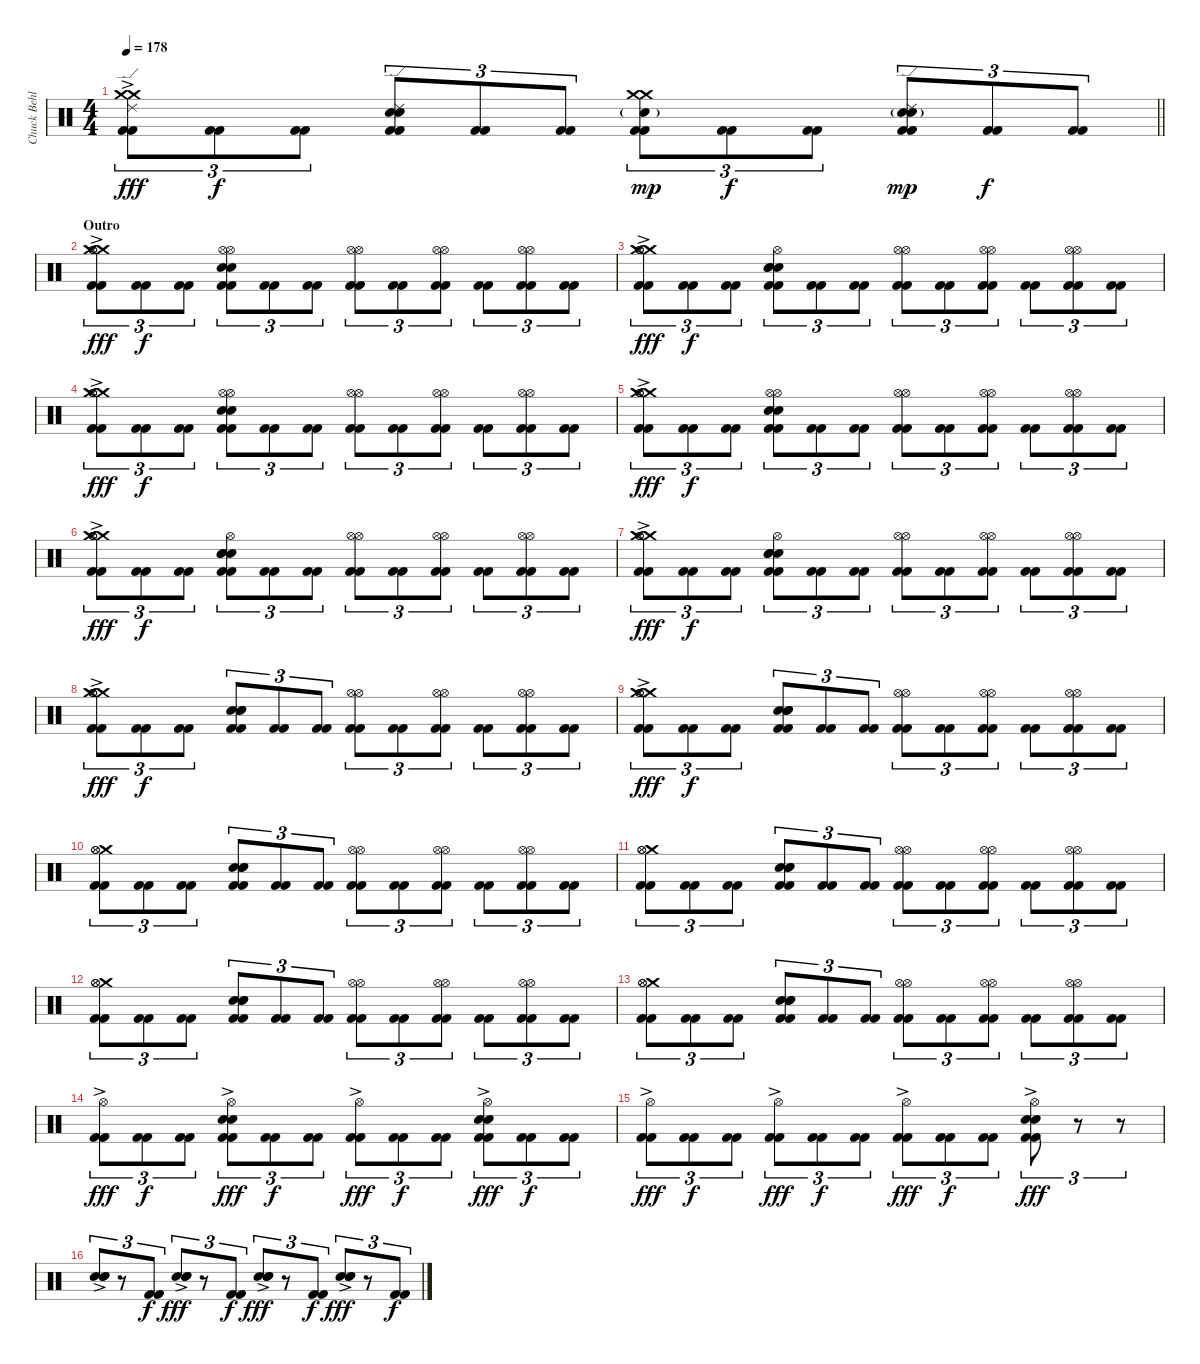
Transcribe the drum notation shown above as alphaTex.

\track ("Chuck Behler" "Chuck Behl") {instrument percussion}
\staff {score}
\articulation defaults
\ts (4 4)
\tempo 178
\clef neutral
\barLineRight lightlight
\ks c
("Crash medium (hit)"{ac} "Crash medium (hit)"{ac} "Ride (edge) 2" "Kick (hit) 2" "Kick (hit) 2").8{tu (3 2) dy fff} ("Kick (hit) 2" "Kick (hit) 2").8{tu (3 2) dy f} ("Kick (hit) 2" "Kick (hit) 2").8{tu (3 2)} ("Ride (edge) 2" "Electric Snare (hit)" "Snare (hit) 2" "Kick (hit) 2" "Kick (hit) 2").8{tu (3 2)} ("Kick (hit) 2" "Kick (hit) 2").8{tu (3 2)} ("Kick (hit) 2" "Kick (hit) 2").8{tu (3 2)} ("Crash medium (hit)" "Crash medium (hit)" "Snare (hit) 2"{g} "Kick (hit) 2" "Kick (hit) 2").8{tu (3 2) dy mp} ("Kick (hit) 2" "Kick (hit) 2").8{tu (3 2) dy f} ("Kick (hit) 2" "Kick (hit) 2").8{tu (3 2)} ("Electric Snare (hit)" "Ride (edge) 2" "Snare (hit) 2"{g} "Kick (hit) 2" "Kick (hit) 2").8{tu (3 2) dy mp} ("Kick (hit) 2" "Kick (hit) 2").8{tu (3 2) dy f} ("Kick (hit) 2" "Kick (hit) 2").8{tu (3 2)} |
\section ("" "Outro")
("Crash medium (hit)"{ac} "Crash medium (hit)"{ac} "Hi-Hat (open)" "Hi-Hat (open)" "Kick (hit) 2" "Kick (hit) 2").8{tu (3 2) dy fff} ("Kick (hit) 2" "Kick (hit) 2").8{tu (3 2) dy f} ("Kick (hit) 2" "Kick (hit) 2").8{tu (3 2)} ("Electric Snare (hit)" "Hi-Hat (open)" "Hi-Hat (open)" "Electric Snare (hit)" "Kick (hit) 2" "Kick (hit) 2").8{tu (3 2)} ("Kick (hit) 2" "Kick (hit) 2").8{tu (3 2)} ("Kick (hit) 2" "Kick (hit) 2").8{tu (3 2)} ("Hi-Hat (open)"{pm} "Hi-Hat (open)"{pm} "Kick (hit) 2" "Kick (hit) 2").8{tu (3 2)} ("Kick (hit) 2" "Kick (hit) 2").8{tu (3 2)} ("Hi-Hat (open)"{pm} "Hi-Hat (open)"{pm} "Kick (hit) 2" "Kick (hit) 2").8{tu (3 2)} ("Kick (hit) 2" "Kick (hit) 2").8{tu (3 2)} ("Hi-Hat (open)"{pm} "Hi-Hat (open)"{pm} "Kick (hit) 2" "Kick (hit) 2").8{tu (3 2)} ("Kick (hit) 2" "Kick (hit) 2").8{tu (3 2)} |
("Crash medium (hit)"{ac} "Crash medium (hit)"{ac} "Hi-Hat (open)" "Hi-Hat (open)" "Kick (hit) 2" "Kick (hit) 2").8{tu (3 2) dy fff} ("Kick (hit) 2" "Kick (hit) 2").8{tu (3 2) dy f} ("Kick (hit) 2" "Kick (hit) 2").8{tu (3 2)} ("Electric Snare (hit)" "Hi-Hat (open)" "Electric Snare (hit)" "Snare (hit) 2" "Kick (hit) 2" "Kick (hit) 2").8{tu (3 2)} ("Kick (hit) 2" "Kick (hit) 2").8{tu (3 2)} ("Kick (hit) 2" "Kick (hit) 2").8{tu (3 2)} ("Hi-Hat (open)"{pm} "Hi-Hat (open)"{pm} "Kick (hit) 2" "Kick (hit) 2").8{tu (3 2)} ("Kick (hit) 2" "Kick (hit) 2").8{tu (3 2)} ("Hi-Hat (open)"{pm} "Hi-Hat (open)"{pm} "Kick (hit) 2" "Kick (hit) 2").8{tu (3 2)} ("Kick (hit) 2" "Kick (hit) 2").8{tu (3 2)} ("Hi-Hat (open)"{pm} "Hi-Hat (open)"{pm} "Kick (hit) 2" "Kick (hit) 2").8{tu (3 2)} ("Kick (hit) 2" "Kick (hit) 2").8{tu (3 2)} |
("Crash medium (hit)"{ac} "Crash medium (hit)"{ac} "Hi-Hat (open)" "Hi-Hat (open)" "Kick (hit) 2" "Kick (hit) 2").8{tu (3 2) dy fff} ("Kick (hit) 2" "Kick (hit) 2").8{tu (3 2) dy f} ("Kick (hit) 2" "Kick (hit) 2").8{tu (3 2)} ("Electric Snare (hit)" "Hi-Hat (open)" "Hi-Hat (open)" "Electric Snare (hit)" "Kick (hit) 2" "Kick (hit) 2").8{tu (3 2)} ("Kick (hit) 2" "Kick (hit) 2").8{tu (3 2)} ("Kick (hit) 2" "Kick (hit) 2").8{tu (3 2)} ("Hi-Hat (open)"{pm} "Hi-Hat (open)"{pm} "Kick (hit) 2" "Kick (hit) 2").8{tu (3 2)} ("Kick (hit) 2" "Kick (hit) 2").8{tu (3 2)} ("Hi-Hat (open)"{pm} "Hi-Hat (open)"{pm} "Kick (hit) 2" "Kick (hit) 2").8{tu (3 2)} ("Kick (hit) 2" "Kick (hit) 2").8{tu (3 2)} ("Hi-Hat (open)"{pm} "Hi-Hat (open)"{pm} "Kick (hit) 2" "Kick (hit) 2").8{tu (3 2)} ("Kick (hit) 2" "Kick (hit) 2").8{tu (3 2)} |
("Crash medium (hit)"{ac} "Crash medium (hit)"{ac} "Hi-Hat (open)" "Hi-Hat (open)" "Kick (hit) 2" "Kick (hit) 2").8{tu (3 2) dy fff} ("Kick (hit) 2" "Kick (hit) 2").8{tu (3 2) dy f} ("Kick (hit) 2" "Kick (hit) 2").8{tu (3 2)} ("Electric Snare (hit)" "Hi-Hat (open)" "Hi-Hat (open)" "Electric Snare (hit)" "Kick (hit) 2" "Kick (hit) 2").8{tu (3 2)} ("Kick (hit) 2" "Kick (hit) 2").8{tu (3 2)} ("Kick (hit) 2" "Kick (hit) 2").8{tu (3 2)} ("Hi-Hat (open)"{pm} "Hi-Hat (open)"{pm} "Kick (hit) 2" "Kick (hit) 2").8{tu (3 2)} ("Kick (hit) 2" "Kick (hit) 2").8{tu (3 2)} ("Hi-Hat (open)"{pm} "Hi-Hat (open)"{pm} "Kick (hit) 2" "Kick (hit) 2").8{tu (3 2)} ("Kick (hit) 2" "Kick (hit) 2").8{tu (3 2)} ("Hi-Hat (open)"{pm} "Hi-Hat (open)"{pm} "Kick (hit) 2" "Kick (hit) 2").8{tu (3 2)} ("Kick (hit) 2" "Kick (hit) 2").8{tu (3 2)} |
("Crash medium (hit)"{ac} "Crash medium (hit)"{ac} "Hi-Hat (open)" "Hi-Hat (open)" "Kick (hit) 2" "Kick (hit) 2").8{tu (3 2) dy fff} ("Kick (hit) 2" "Kick (hit) 2").8{tu (3 2) dy f} ("Kick (hit) 2" "Kick (hit) 2").8{tu (3 2)} ("Electric Snare (hit)" "Hi-Hat (open)" "Electric Snare (hit)" "Snare (hit) 2" "Kick (hit) 2" "Kick (hit) 2").8{tu (3 2)} ("Kick (hit) 2" "Kick (hit) 2").8{tu (3 2)} ("Kick (hit) 2" "Kick (hit) 2").8{tu (3 2)} ("Hi-Hat (open)"{pm} "Hi-Hat (open)"{pm} "Kick (hit) 2" "Kick (hit) 2").8{tu (3 2)} ("Kick (hit) 2" "Kick (hit) 2").8{tu (3 2)} ("Hi-Hat (open)"{pm} "Hi-Hat (open)"{pm} "Kick (hit) 2" "Kick (hit) 2").8{tu (3 2)} ("Kick (hit) 2" "Kick (hit) 2").8{tu (3 2)} ("Hi-Hat (open)"{pm} "Hi-Hat (open)"{pm} "Kick (hit) 2" "Kick (hit) 2").8{tu (3 2)} ("Kick (hit) 2" "Kick (hit) 2").8{tu (3 2)} |
("Crash medium (hit)"{ac} "Crash medium (hit)"{ac} "Hi-Hat (open)" "Hi-Hat (open)" "Kick (hit) 2" "Kick (hit) 2").8{tu (3 2) dy fff} ("Kick (hit) 2" "Kick (hit) 2").8{tu (3 2) dy f} ("Kick (hit) 2" "Kick (hit) 2").8{tu (3 2)} ("Electric Snare (hit)" "Hi-Hat (open)" "Electric Snare (hit)" "Snare (hit) 2" "Kick (hit) 2" "Kick (hit) 2").8{tu (3 2)} ("Kick (hit) 2" "Kick (hit) 2").8{tu (3 2)} ("Kick (hit) 2" "Kick (hit) 2").8{tu (3 2)} ("Hi-Hat (open)"{pm} "Hi-Hat (open)"{pm} "Kick (hit) 2" "Kick (hit) 2").8{tu (3 2)} ("Kick (hit) 2" "Kick (hit) 2").8{tu (3 2)} ("Hi-Hat (open)"{pm} "Hi-Hat (open)"{pm} "Kick (hit) 2" "Kick (hit) 2").8{tu (3 2)} ("Kick (hit) 2" "Kick (hit) 2").8{tu (3 2)} ("Hi-Hat (open)"{pm} "Hi-Hat (open)"{pm} "Kick (hit) 2" "Kick (hit) 2").8{tu (3 2)} ("Kick (hit) 2" "Kick (hit) 2").8{tu (3 2)} |
("Crash medium (hit)"{ac} "Crash medium (hit)"{ac} "Hi-Hat (open)" "Hi-Hat (open)" "Kick (hit) 2" "Kick (hit) 2").8{tu (3 2) dy fff} ("Kick (hit) 2" "Kick (hit) 2").8{tu (3 2) dy f} ("Kick (hit) 2" "Kick (hit) 2").8{tu (3 2)} ("Electric Snare (hit)" "Electric Snare (hit)" "Snare (hit) 2" "Kick (hit) 2" "Kick (hit) 2").8{tu (3 2)} ("Kick (hit) 2" "Kick (hit) 2").8{tu (3 2)} ("Kick (hit) 2" "Kick (hit) 2").8{tu (3 2)} ("Hi-Hat (open)"{pm} "Hi-Hat (open)"{pm} "Kick (hit) 2" "Kick (hit) 2").8{tu (3 2)} ("Kick (hit) 2" "Kick (hit) 2").8{tu (3 2)} ("Hi-Hat (open)"{pm} "Hi-Hat (open)"{pm} "Kick (hit) 2" "Kick (hit) 2").8{tu (3 2)} ("Kick (hit) 2" "Kick (hit) 2").8{tu (3 2)} ("Hi-Hat (open)"{pm} "Hi-Hat (open)"{pm} "Kick (hit) 2" "Kick (hit) 2").8{tu (3 2)} ("Kick (hit) 2" "Kick (hit) 2").8{tu (3 2)} |
("Crash medium (hit)"{ac} "Crash medium (hit)"{ac} "Hi-Hat (open)" "Hi-Hat (open)" "Kick (hit) 2" "Kick (hit) 2").8{tu (3 2) dy fff} ("Kick (hit) 2" "Kick (hit) 2").8{tu (3 2) dy f} ("Kick (hit) 2" "Kick (hit) 2").8{tu (3 2)} ("Electric Snare (hit)" "Electric Snare (hit)" "Snare (hit) 2" "Kick (hit) 2" "Kick (hit) 2").8{tu (3 2)} ("Kick (hit) 2" "Kick (hit) 2").8{tu (3 2)} ("Kick (hit) 2" "Kick (hit) 2").8{tu (3 2)} ("Hi-Hat (open)"{pm} "Hi-Hat (open)"{pm} "Kick (hit) 2" "Kick (hit) 2").8{tu (3 2)} ("Kick (hit) 2" "Kick (hit) 2").8{tu (3 2)} ("Hi-Hat (open)"{pm} "Hi-Hat (open)"{pm} "Kick (hit) 2" "Kick (hit) 2").8{tu (3 2)} ("Kick (hit) 2" "Kick (hit) 2").8{tu (3 2)} ("Hi-Hat (open)"{pm} "Hi-Hat (open)"{pm} "Kick (hit) 2" "Kick (hit) 2").8{tu (3 2)} ("Kick (hit) 2" "Kick (hit) 2").8{tu (3 2)} |
("Crash medium (hit)" "Hi-Hat (open)" "Hi-Hat (open)" "Kick (hit) 2" "Kick (hit) 2").8{tu (3 2)} ("Kick (hit) 2" "Kick (hit) 2").8{tu (3 2)} ("Kick (hit) 2" "Kick (hit) 2").8{tu (3 2)} ("Electric Snare (hit)" "Electric Snare (hit)" "Snare (hit) 2" "Kick (hit) 2" "Kick (hit) 2").8{tu (3 2)} ("Kick (hit) 2" "Kick (hit) 2").8{tu (3 2)} ("Kick (hit) 2" "Kick (hit) 2").8{tu (3 2)} ("Hi-Hat (open)"{pm} "Hi-Hat (open)"{pm} "Kick (hit) 2" "Kick (hit) 2").8{tu (3 2)} ("Kick (hit) 2" "Kick (hit) 2").8{tu (3 2)} ("Hi-Hat (open)"{pm} "Hi-Hat (open)"{pm} "Kick (hit) 2" "Kick (hit) 2").8{tu (3 2)} ("Kick (hit) 2" "Kick (hit) 2").8{tu (3 2)} ("Hi-Hat (open)"{pm} "Hi-Hat (open)"{pm} "Kick (hit) 2" "Kick (hit) 2").8{tu (3 2)} ("Kick (hit) 2" "Kick (hit) 2").8{tu (3 2)} |
("Crash medium (hit)" "Hi-Hat (open)" "Hi-Hat (open)" "Kick (hit) 2" "Kick (hit) 2").8{tu (3 2)} ("Kick (hit) 2" "Kick (hit) 2").8{tu (3 2)} ("Kick (hit) 2" "Kick (hit) 2").8{tu (3 2)} ("Electric Snare (hit)" "Electric Snare (hit)" "Snare (hit) 2" "Kick (hit) 2" "Kick (hit) 2").8{tu (3 2)} ("Kick (hit) 2" "Kick (hit) 2").8{tu (3 2)} ("Kick (hit) 2" "Kick (hit) 2").8{tu (3 2)} ("Hi-Hat (open)"{pm} "Hi-Hat (open)"{pm} "Kick (hit) 2" "Kick (hit) 2").8{tu (3 2)} ("Kick (hit) 2" "Kick (hit) 2").8{tu (3 2)} ("Hi-Hat (open)"{pm} "Hi-Hat (open)"{pm} "Kick (hit) 2" "Kick (hit) 2").8{tu (3 2)} ("Kick (hit) 2" "Kick (hit) 2").8{tu (3 2)} ("Hi-Hat (open)"{pm} "Hi-Hat (open)"{pm} "Kick (hit) 2" "Kick (hit) 2").8{tu (3 2)} ("Kick (hit) 2" "Kick (hit) 2").8{tu (3 2)} |
("Crash medium (hit)" "Hi-Hat (open)" "Hi-Hat (open)" "Kick (hit) 2" "Kick (hit) 2").8{tu (3 2)} ("Kick (hit) 2" "Kick (hit) 2").8{tu (3 2)} ("Kick (hit) 2" "Kick (hit) 2").8{tu (3 2)} ("Electric Snare (hit)" "Electric Snare (hit)" "Snare (hit) 2" "Kick (hit) 2" "Kick (hit) 2").8{tu (3 2)} ("Kick (hit) 2" "Kick (hit) 2").8{tu (3 2)} ("Kick (hit) 2" "Kick (hit) 2").8{tu (3 2)} ("Hi-Hat (open)"{pm} "Hi-Hat (open)"{pm} "Kick (hit) 2" "Kick (hit) 2").8{tu (3 2)} ("Kick (hit) 2" "Kick (hit) 2").8{tu (3 2)} ("Hi-Hat (open)"{pm} "Hi-Hat (open)"{pm} "Kick (hit) 2" "Kick (hit) 2").8{tu (3 2)} ("Kick (hit) 2" "Kick (hit) 2").8{tu (3 2)} ("Hi-Hat (open)"{pm} "Hi-Hat (open)"{pm} "Kick (hit) 2" "Kick (hit) 2").8{tu (3 2)} ("Kick (hit) 2" "Kick (hit) 2").8{tu (3 2)} |
("Crash medium (hit)" "Hi-Hat (open)" "Hi-Hat (open)" "Kick (hit) 2" "Kick (hit) 2").8{tu (3 2)} ("Kick (hit) 2" "Kick (hit) 2").8{tu (3 2)} ("Kick (hit) 2" "Kick (hit) 2").8{tu (3 2)} ("Electric Snare (hit)" "Electric Snare (hit)" "Snare (hit) 2" "Kick (hit) 2" "Kick (hit) 2").8{tu (3 2)} ("Kick (hit) 2" "Kick (hit) 2").8{tu (3 2)} ("Kick (hit) 2" "Kick (hit) 2").8{tu (3 2)} ("Hi-Hat (open)"{pm} "Hi-Hat (open)"{pm} "Kick (hit) 2" "Kick (hit) 2").8{tu (3 2)} ("Kick (hit) 2" "Kick (hit) 2").8{tu (3 2)} ("Hi-Hat (open)"{pm} "Hi-Hat (open)"{pm} "Kick (hit) 2" "Kick (hit) 2").8{tu (3 2)} ("Kick (hit) 2" "Kick (hit) 2").8{tu (3 2)} ("Hi-Hat (open)"{pm} "Hi-Hat (open)"{pm} "Kick (hit) 2" "Kick (hit) 2").8{tu (3 2)} ("Kick (hit) 2" "Kick (hit) 2").8{tu (3 2)} |
("Hi-Hat (open)"{ac} "Kick (hit) 2" "Kick (hit) 2").8{tu (3 2) dy fff} ("Kick (hit) 2" "Kick (hit) 2").8{tu (3 2) dy f} ("Kick (hit) 2" "Kick (hit) 2").8{tu (3 2)} ("Snare (hit) 2" "Electric Snare (hit)" "Hi-Hat (open)"{ac} "Kick (hit) 2" "Kick (hit) 2").8{tu (3 2) dy fff} ("Kick (hit) 2" "Kick (hit) 2").8{tu (3 2) dy f} ("Kick (hit) 2" "Kick (hit) 2").8{tu (3 2)} ("Hi-Hat (open)"{ac} "Kick (hit) 2" "Kick (hit) 2").8{tu (3 2) dy fff} ("Kick (hit) 2" "Kick (hit) 2").8{tu (3 2) dy f} ("Kick (hit) 2" "Kick (hit) 2").8{tu (3 2)} ("Snare (hit) 2" "Electric Snare (hit)" "Hi-Hat (open)"{ac} "Kick (hit) 2" "Kick (hit) 2").8{tu (3 2) dy fff} ("Kick (hit) 2" "Kick (hit) 2").8{tu (3 2) dy f} ("Kick (hit) 2" "Kick (hit) 2").8{tu (3 2)} |
("Hi-Hat (open)"{ac} "Kick (hit) 2" "Kick (hit) 2").8{tu (3 2) dy fff} ("Kick (hit) 2" "Kick (hit) 2").8{tu (3 2) dy f} ("Kick (hit) 2" "Kick (hit) 2").8{tu (3 2)} ("Hi-Hat (open)"{ac} "Kick (hit) 2" "Kick (hit) 2").8{tu (3 2) dy fff} ("Kick (hit) 2" "Kick (hit) 2").8{tu (3 2) dy f} ("Kick (hit) 2" "Kick (hit) 2").8{tu (3 2)} ("Hi-Hat (open)"{ac} "Kick (hit) 2" "Kick (hit) 2").8{tu (3 2) dy fff} ("Kick (hit) 2" "Kick (hit) 2").8{tu (3 2) dy f} ("Kick (hit) 2" "Kick (hit) 2").8{tu (3 2)} ("Snare (hit) 2" "Electric Snare (hit)" "Hi-Hat (open)"{ac} "Kick (hit) 2" "Kick (hit) 2").8{tu (3 2) dy fff} r.8{tu (3 2)} r.8{tu (3 2)} |
("Snare (hit) 2"{ac} "Electric Snare (hit)" "Electric Snare (hit)"{ac}).8{tu (3 2)} r.8{tu (3 2)} ("Kick (hit) 2" "Kick (hit) 2").8{tu (3 2) dy f} ("Snare (hit) 2"{ac} "Electric Snare (hit)" "Electric Snare (hit)"{ac}).8{tu (3 2) dy fff} r.8{tu (3 2)} ("Kick (hit) 2" "Kick (hit) 2").8{tu (3 2) dy f} ("Snare (hit) 2"{ac} "Electric Snare (hit)" "Electric Snare (hit)"{ac}).8{tu (3 2) dy fff} r.8{tu (3 2)} ("Kick (hit) 2" "Kick (hit) 2").8{tu (3 2) dy f} ("Snare (hit) 2"{ac} "Electric Snare (hit)" "Electric Snare (hit)"{ac}).8{tu (3 2) dy fff} r.8{tu (3 2)} ("Kick (hit) 2" "Kick (hit) 2").8{tu (3 2) dy f}
